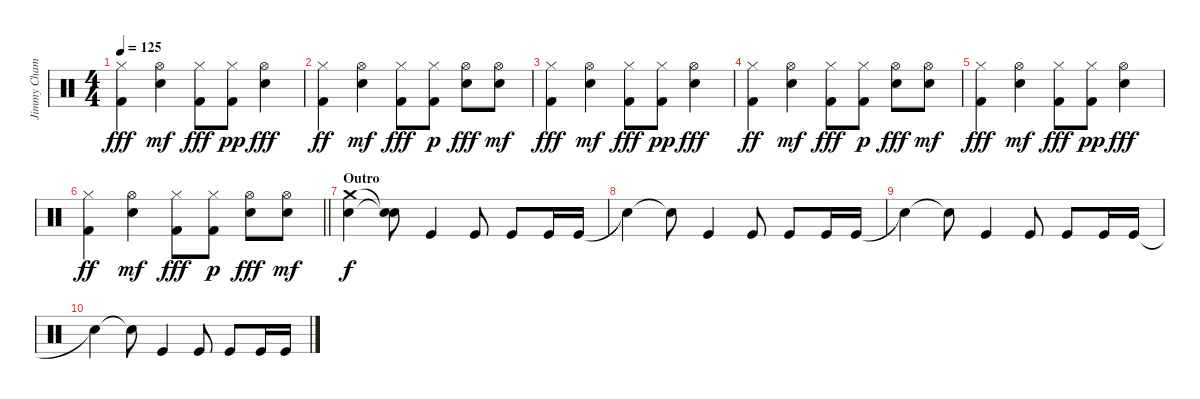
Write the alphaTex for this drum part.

\track ("Jimmy Chamberline" "Jimmy Cham") {instrument percussion}
\staff {score}
\articulation defaults
\ts (4 4)
\tempo 125
\clef neutral
\ks c
("Hi-Hat (closed)" "Kick (hit) 2").4{dy fff} ("Hi-Hat (open)" "Snare (hit) 2").4{dy mf} ("Hi-Hat (closed)" "Kick (hit) 2").8{dy fff} ("Hi-Hat (closed)" "Kick (hit) 2").8{dy pp} ("Hi-Hat (open)" "Snare (hit) 2").4{dy fff} |
("Hi-Hat (closed)" "Kick (hit) 2").4{dy ff} ("Hi-Hat (open)" "Snare (hit) 2").4{dy mf} ("Hi-Hat (closed)" "Kick (hit) 2").8{dy fff} ("Hi-Hat (closed)" "Kick (hit) 2").8{dy p} ("Hi-Hat (open)" "Snare (hit) 2").8{dy fff} ("Hi-Hat (open)" "Snare (hit) 2").8{dy mf} |
("Hi-Hat (closed)" "Kick (hit) 2").4{dy fff} ("Hi-Hat (open)" "Snare (hit) 2").4{dy mf} ("Hi-Hat (closed)" "Kick (hit) 2").8{dy fff} ("Hi-Hat (closed)" "Kick (hit) 2").8{dy pp} ("Hi-Hat (open)" "Snare (hit) 2").4{dy fff} |
("Hi-Hat (closed)" "Kick (hit) 2").4{dy ff} ("Hi-Hat (open)" "Snare (hit) 2").4{dy mf} ("Hi-Hat (closed)" "Kick (hit) 2").8{dy fff} ("Hi-Hat (closed)" "Kick (hit) 2").8{dy p} ("Hi-Hat (open)" "Snare (hit) 2").8{dy fff} ("Hi-Hat (open)" "Snare (hit) 2").8{dy mf} |
("Hi-Hat (closed)" "Kick (hit) 2").4{dy fff} ("Hi-Hat (open)" "Snare (hit) 2").4{dy mf} ("Hi-Hat (closed)" "Kick (hit) 2").8{dy fff} ("Hi-Hat (closed)" "Kick (hit) 2").8{dy pp} ("Hi-Hat (open)" "Snare (hit) 2").4{dy fff} |
\barLineRight lightlight
("Hi-Hat (closed)" "Kick (hit) 2").4{dy ff} ("Hi-Hat (open)" "Snare (hit) 2").4{dy mf} ("Hi-Hat (closed)" "Kick (hit) 2").8{dy fff} ("Hi-Hat (closed)" "Kick (hit) 2").8{dy p} ("Hi-Hat (open)" "Snare (hit) 2").8{dy fff} ("Hi-Hat (open)" "Snare (hit) 2").8{dy mf} |
\section ("" "Outro")
("Crash medium (hit)" "Snare (hit) 2").4{dy f} ("Snare (hit)"{t} "Snare (hit)"{t}).8 "Kick (hit)".4 "Kick (hit)".8 "Kick (hit)".8 "Kick (hit)".16 "Kick (hit)".16 |
"Snare (hit)"{t}.4 "Snare (hit)"{t}.8 "Kick (hit)".4 "Kick (hit)".8 "Kick (hit)".8 "Kick (hit)".16 "Kick (hit)".16 |
"Snare (hit)"{t}.4 "Snare (hit)"{t}.8 "Kick (hit)".4 "Kick (hit)".8 "Kick (hit)".8 "Kick (hit)".16 "Kick (hit)".16 |
"Snare (hit)"{t}.4 "Snare (hit)"{t}.8 "Kick (hit)".4 "Kick (hit)".8 "Kick (hit)".8 "Kick (hit)".16 "Kick (hit)".16
